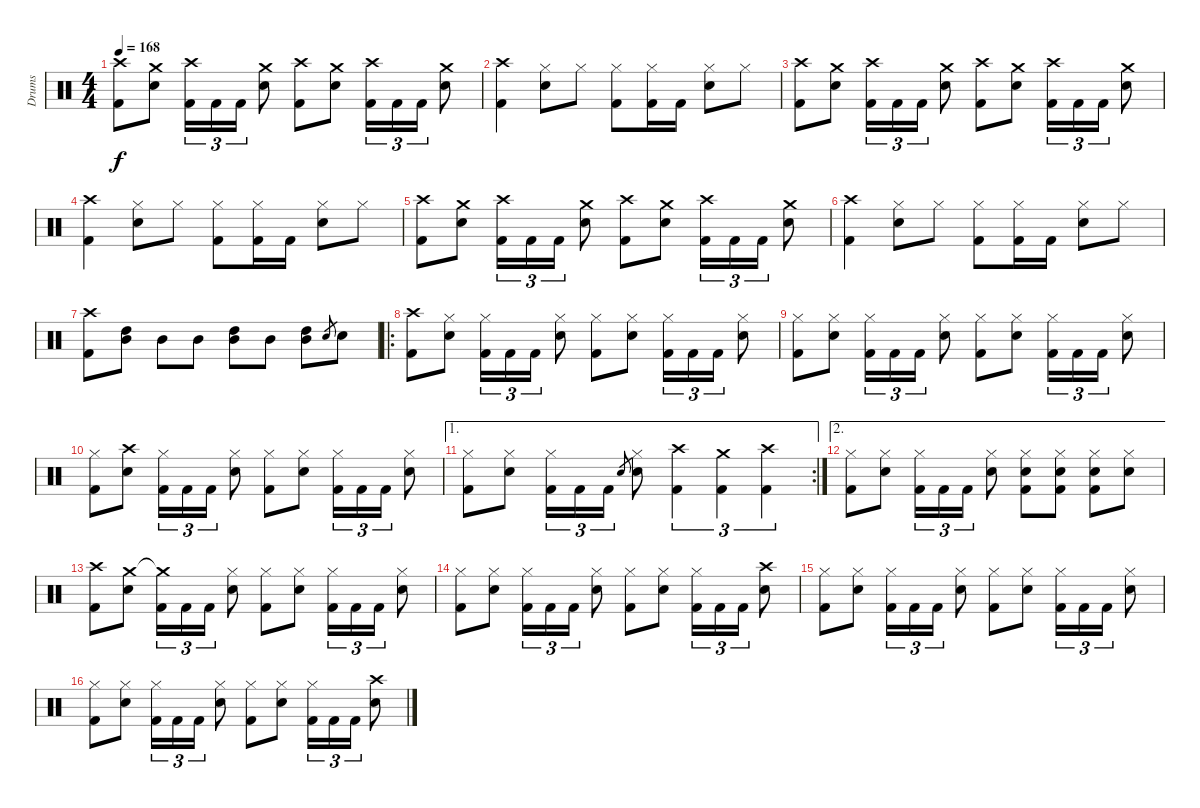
\track ("Drums" "Drums") {instrument percussion}
\staff {score}
\articulation defaults
\ts (4 4)
\tempo 168
\clef neutral
\ks c
("Crash high (hit)" "Kick (hit) 2").8{dy f} ("Crash medium (hit)" "Snare (hit) 2").8 ("Crash high (hit)" "Kick (hit) 2").16{tu (3 2)} "Kick (hit) 2".16{tu (3 2)} "Kick (hit) 2".16{tu (3 2)} ("Crash medium (hit)" "Snare (hit) 2").8 ("Crash high (hit)" "Kick (hit) 2").8 ("Crash medium (hit)" "Snare (hit) 2").8 ("Crash high (hit)" "Kick (hit) 2").16{tu (3 2)} "Kick (hit) 2".16{tu (3 2)} "Kick (hit) 2".16{tu (3 2)} ("Crash medium (hit)" "Snare (hit) 2").8 |
("Crash high (hit)" "Kick (hit) 2").4 ("Hi-Hat (closed)" "Snare (hit) 2").8 "Hi-Hat (closed)".8 ("Hi-Hat (closed)" "Kick (hit) 2").8 ("Hi-Hat (closed)" "Kick (hit) 2").16 "Kick (hit) 2".16 ("Hi-Hat (closed)" "Snare (hit) 2").8 "Hi-Hat (closed)".8 |
("Crash high (hit)" "Kick (hit) 2").8 ("Crash medium (hit)" "Snare (hit) 2").8 ("Crash high (hit)" "Kick (hit) 2").16{tu (3 2)} "Kick (hit) 2".16{tu (3 2)} "Kick (hit) 2".16{tu (3 2)} ("Crash medium (hit)" "Snare (hit) 2").8 ("Crash high (hit)" "Kick (hit) 2").8 ("Crash medium (hit)" "Snare (hit) 2").8 ("Crash high (hit)" "Kick (hit) 2").16{tu (3 2)} "Kick (hit) 2".16{tu (3 2)} "Kick (hit) 2".16{tu (3 2)} ("Crash medium (hit)" "Snare (hit) 2").8 |
("Crash high (hit)" "Kick (hit) 2").4 ("Hi-Hat (closed)" "Snare (hit) 2").8 "Hi-Hat (closed)".8 ("Hi-Hat (closed)" "Kick (hit) 2").8 ("Hi-Hat (closed)" "Kick (hit) 2").16 "Kick (hit) 2".16 ("Hi-Hat (closed)" "Snare (hit) 2").8 "Hi-Hat (closed)".8 |
("Crash high (hit)" "Kick (hit) 2").8 ("Crash medium (hit)" "Snare (hit) 2").8 ("Crash high (hit)" "Kick (hit) 2").16{tu (3 2)} "Kick (hit) 2".16{tu (3 2)} "Kick (hit) 2".16{tu (3 2)} ("Crash medium (hit)" "Snare (hit) 2").8 ("Crash high (hit)" "Kick (hit) 2").8 ("Crash medium (hit)" "Snare (hit) 2").8 ("Crash high (hit)" "Kick (hit) 2").16{tu (3 2)} "Kick (hit) 2".16{tu (3 2)} "Kick (hit) 2".16{tu (3 2)} ("Crash medium (hit)" "Snare (hit) 2").8 |
("Crash high (hit)" "Kick (hit) 2").4 ("Hi-Hat (closed)" "Snare (hit) 2").8 "Hi-Hat (closed)".8 ("Hi-Hat (closed)" "Kick (hit) 2").8 ("Hi-Hat (closed)" "Kick (hit) 2").16 "Kick (hit) 2".16 ("Hi-Hat (closed)" "Snare (hit) 2").8 "Hi-Hat (closed)".8 |
("Crash high (hit)" "Kick (hit) 2").8 ("High Tom (hit)" "Mid Tom (hit)").8 "Mid Tom (hit)".8 "Mid Tom (hit)".8 ("High Tom (hit)" "Mid Tom (hit)").8 "Mid Tom (hit)".8 ("High Tom (hit)" "Mid Tom (hit)").8 "Snare (hit) 2".8{gr} "Snare (hit) 2".8 |
\ro
("Crash high (hit)" "Kick (hit) 2").8 ("Hi-Hat (closed)" "Snare (hit) 2").8 ("Hi-Hat (closed)" "Kick (hit) 2").16{tu (3 2)} "Kick (hit) 2".16{tu (3 2)} "Kick (hit) 2".16{tu (3 2)} ("Hi-Hat (closed)" "Snare (hit) 2").8 ("Hi-Hat (closed)" "Kick (hit) 2").8 ("Hi-Hat (closed)" "Snare (hit) 2").8 ("Hi-Hat (closed)" "Kick (hit) 2").16{tu (3 2)} "Kick (hit) 2".16{tu (3 2)} "Kick (hit) 2".16{tu (3 2)} ("Hi-Hat (closed)" "Snare (hit) 2").8 |
("Hi-Hat (closed)" "Kick (hit) 2").8 ("Hi-Hat (closed)" "Snare (hit) 2").8 ("Hi-Hat (closed)" "Kick (hit) 2").16{tu (3 2)} "Kick (hit) 2".16{tu (3 2)} "Kick (hit) 2".16{tu (3 2)} ("Hi-Hat (closed)" "Snare (hit) 2").8 ("Hi-Hat (closed)" "Kick (hit) 2").8 ("Hi-Hat (closed)" "Snare (hit) 2").8 ("Hi-Hat (closed)" "Kick (hit) 2").16{tu (3 2)} "Kick (hit) 2".16{tu (3 2)} "Kick (hit) 2".16{tu (3 2)} ("Hi-Hat (closed)" "Snare (hit) 2").8 |
("Hi-Hat (closed)" "Kick (hit) 2").8 ("Crash high (hit)" "Snare (hit) 2").8 ("Hi-Hat (closed)" "Kick (hit) 2").16{tu (3 2)} "Kick (hit) 2".16{tu (3 2)} "Kick (hit) 2".16{tu (3 2)} ("Hi-Hat (closed)" "Snare (hit) 2").8 ("Hi-Hat (closed)" "Kick (hit) 2").8 ("Hi-Hat (closed)" "Snare (hit) 2").8 ("Hi-Hat (closed)" "Kick (hit) 2").16{tu (3 2)} "Kick (hit) 2".16{tu (3 2)} "Kick (hit) 2".16{tu (3 2)} ("Hi-Hat (closed)" "Snare (hit) 2").8 |
\ae 1
\rc 2
("Hi-Hat (closed)" "Kick (hit) 2").8 ("Hi-Hat (closed)" "Snare (hit) 2").8 ("Hi-Hat (closed)" "Kick (hit) 2").16{tu (3 2)} "Kick (hit) 2".16{tu (3 2)} "Kick (hit) 2".16{tu (3 2)} "Snare (hit) 2".8{gr} ("Hi-Hat (closed)" "Snare (hit) 2").8 ("Crash high (hit)" "Kick (hit) 2").4{tu (3 2)} ("Crash medium (hit)" "Kick (hit) 2").4{tu (3 2)} ("Crash high (hit)" "Kick (hit) 2").4{tu (3 2)} |
\ae 2
("Hi-Hat (closed)" "Kick (hit) 2").8 ("Hi-Hat (closed)" "Snare (hit) 2").8 ("Hi-Hat (closed)" "Kick (hit) 2").16{tu (3 2)} "Kick (hit) 2".16{tu (3 2)} "Kick (hit) 2".16{tu (3 2)} ("Hi-Hat (closed)" "Snare (hit) 2").8 ("Hi-Hat (closed)" "Snare (hit) 2" "Kick (hit) 2").8 ("Hi-Hat (closed)" "Snare (hit) 2" "Kick (hit) 2").8 ("Hi-Hat (closed)" "Snare (hit) 2" "Kick (hit) 2").8 ("Hi-Hat (closed)" "Snare (hit) 2").8 |
("Crash high (hit)" "Kick (hit) 2").8 ("Crash medium (hit)" "Snare (hit) 2").8 ("Crash medium (hit)"{t} "Kick (hit) 2").16{tu (3 2)} "Kick (hit) 2".16{tu (3 2)} "Kick (hit) 2".16{tu (3 2)} ("Hi-Hat (closed)" "Snare (hit) 2").8 ("Hi-Hat (closed)" "Kick (hit) 2").8 ("Hi-Hat (closed)" "Snare (hit) 2").8 ("Hi-Hat (closed)" "Kick (hit) 2").16{tu (3 2)} "Kick (hit) 2".16{tu (3 2)} "Kick (hit) 2".16{tu (3 2)} ("Hi-Hat (closed)" "Snare (hit) 2").8 |
("Hi-Hat (closed)" "Kick (hit) 2").8 ("Hi-Hat (closed)" "Snare (hit) 2").8 ("Hi-Hat (closed)" "Kick (hit) 2").16{tu (3 2)} "Kick (hit) 2".16{tu (3 2)} "Kick (hit) 2".16{tu (3 2)} ("Hi-Hat (closed)" "Snare (hit) 2").8 ("Hi-Hat (closed)" "Kick (hit) 2").8 ("Hi-Hat (closed)" "Snare (hit) 2").8 ("Hi-Hat (closed)" "Kick (hit) 2").16{tu (3 2)} "Kick (hit) 2".16{tu (3 2)} "Kick (hit) 2".16{tu (3 2)} ("Crash high (hit)" "Snare (hit) 2").8 |
("Hi-Hat (closed)" "Kick (hit) 2").8 ("Hi-Hat (closed)" "Snare (hit) 2").8 ("Hi-Hat (closed)" "Kick (hit) 2").16{tu (3 2)} "Kick (hit) 2".16{tu (3 2)} "Kick (hit) 2".16{tu (3 2)} ("Hi-Hat (closed)" "Snare (hit) 2").8 ("Hi-Hat (closed)" "Kick (hit) 2").8 ("Hi-Hat (closed)" "Snare (hit) 2").8 ("Hi-Hat (closed)" "Kick (hit) 2").16{tu (3 2)} "Kick (hit) 2".16{tu (3 2)} "Kick (hit) 2".16{tu (3 2)} ("Hi-Hat (closed)" "Snare (hit) 2").8 |
("Hi-Hat (closed)" "Kick (hit) 2").8 ("Hi-Hat (closed)" "Snare (hit) 2").8 ("Hi-Hat (closed)" "Kick (hit) 2").16{tu (3 2)} "Kick (hit) 2".16{tu (3 2)} "Kick (hit) 2".16{tu (3 2)} ("Hi-Hat (closed)" "Snare (hit) 2").8 ("Hi-Hat (closed)" "Kick (hit) 2").8 ("Hi-Hat (closed)" "Snare (hit) 2").8 ("Hi-Hat (closed)" "Kick (hit) 2").16{tu (3 2)} "Kick (hit) 2".16{tu (3 2)} "Kick (hit) 2".16{tu (3 2)} ("Crash high (hit)" "Snare (hit) 2").8
